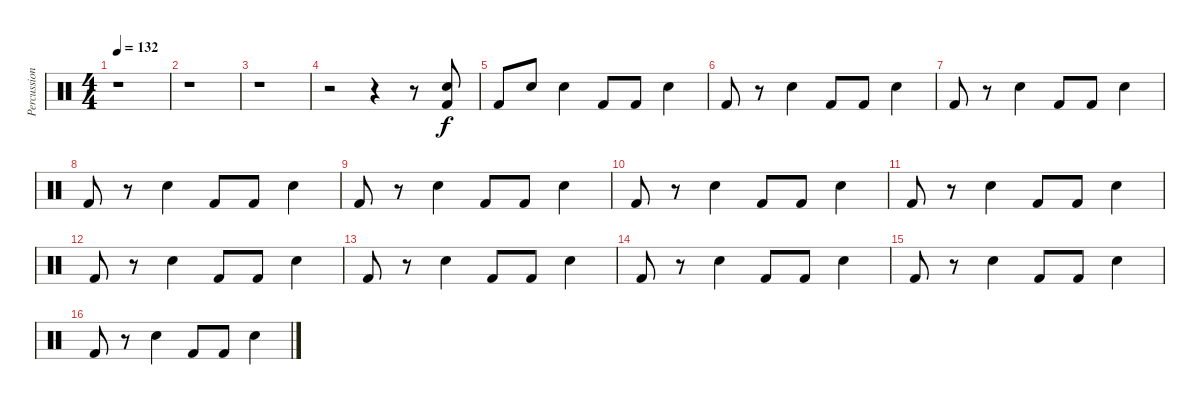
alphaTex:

\track ("Percussions" "Percussion") {instrument percussion}
\staff {score}
\articulation defaults
\ts (4 4)
\tempo 132
\clef neutral
\ks c
r.1{dy f} |
r.1 |
r.1 |
r.2 r.4 r.8 ("Snare (hit) 2" "Kick (hit) 2").8 |
"Kick (hit) 2".8 "Snare (hit) 2".8 "Snare (hit) 2".4 "Kick (hit) 2".8 "Kick (hit) 2".8 "Snare (hit) 2".4 |
"Kick (hit) 2".8 r.8 "Snare (hit) 2".4 "Kick (hit) 2".8 "Kick (hit) 2".8 "Snare (hit) 2".4 |
"Kick (hit) 2".8 r.8 "Snare (hit) 2".4 "Kick (hit) 2".8 "Kick (hit) 2".8 "Snare (hit) 2".4 |
"Kick (hit) 2".8 r.8 "Snare (hit) 2".4 "Kick (hit) 2".8 "Kick (hit) 2".8 "Snare (hit) 2".4 |
"Kick (hit) 2".8 r.8 "Snare (hit) 2".4 "Kick (hit) 2".8 "Kick (hit) 2".8 "Snare (hit) 2".4 |
"Kick (hit) 2".8 r.8 "Snare (hit) 2".4 "Kick (hit) 2".8 "Kick (hit) 2".8 "Snare (hit) 2".4 |
"Kick (hit) 2".8 r.8 "Snare (hit) 2".4 "Kick (hit) 2".8 "Kick (hit) 2".8 "Snare (hit) 2".4 |
"Kick (hit) 2".8 r.8 "Snare (hit) 2".4 "Kick (hit) 2".8 "Kick (hit) 2".8 "Snare (hit) 2".4 |
"Kick (hit) 2".8 r.8 "Snare (hit) 2".4 "Kick (hit) 2".8 "Kick (hit) 2".8 "Snare (hit) 2".4 |
"Kick (hit) 2".8 r.8 "Snare (hit) 2".4 "Kick (hit) 2".8 "Kick (hit) 2".8 "Snare (hit) 2".4 |
"Kick (hit) 2".8 r.8 "Snare (hit) 2".4 "Kick (hit) 2".8 "Kick (hit) 2".8 "Snare (hit) 2".4 |
"Kick (hit) 2".8 r.8 "Snare (hit) 2".4 "Kick (hit) 2".8 "Kick (hit) 2".8 "Snare (hit) 2".4
